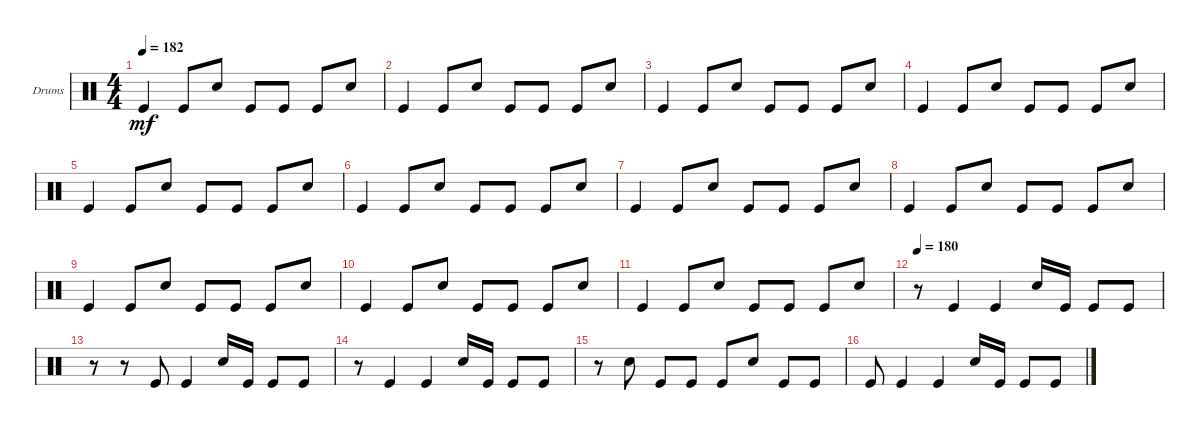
\defaultSystemsLayout 4
\bracketExtendMode groupsimilarinstruments
\firstSystemTrackNameOrientation horizontal
\otherSystemsTrackNameOrientation horizontal
\track ("Drumkit" "Drums") {instrument percussion}
\staff {score}
\articulation defaults
\ts (4 4)
\tempo 182
\clef neutral
\ks c "Kick (hit)".4{dy mf} "Kick (hit)".8 "Snare (hit) 2".8 "Kick (hit)".8 "Kick (hit)".8 "Kick (hit)".8 "Snare (hit) 2".8
|
"Kick (hit)".4 "Kick (hit)".8 "Snare (hit) 2".8 "Kick (hit)".8 "Kick (hit)".8 "Kick (hit)".8 "Snare (hit) 2".8 |
"Kick (hit)".4 "Kick (hit)".8 "Snare (hit) 2".8 "Kick (hit)".8 "Kick (hit)".8 "Kick (hit)".8 "Snare (hit) 2".8 |
"Kick (hit)".4 "Kick (hit)".8 "Snare (hit) 2".8 "Kick (hit)".8 "Kick (hit)".8 "Kick (hit)".8 "Snare (hit) 2".8 |
"Kick (hit)".4 "Kick (hit)".8 "Snare (hit) 2".8 "Kick (hit)".8 "Kick (hit)".8 "Kick (hit)".8 "Snare (hit) 2".8 |
"Kick (hit)".4 "Kick (hit)".8 "Snare (hit) 2".8 "Kick (hit)".8 "Kick (hit)".8 "Kick (hit)".8 "Snare (hit) 2".8 |
"Kick (hit)".4 "Kick (hit)".8 "Snare (hit) 2".8 "Kick (hit)".8 "Kick (hit)".8 "Kick (hit)".8 "Snare (hit) 2".8 |
"Kick (hit)".4 "Kick (hit)".8 "Snare (hit) 2".8 "Kick (hit)".8 "Kick (hit)".8 "Kick (hit)".8 "Snare (hit) 2".8 |
"Kick (hit)".4 "Kick (hit)".8 "Snare (hit) 2".8 "Kick (hit)".8 "Kick (hit)".8 "Kick (hit)".8 "Snare (hit) 2".8 |
"Kick (hit)".4 "Kick (hit)".8 "Snare (hit) 2".8 "Kick (hit)".8 "Kick (hit)".8 "Kick (hit)".8 "Snare (hit) 2".8 |
"Kick (hit)".4 "Kick (hit)".8 "Snare (hit) 2".8 "Kick (hit)".8 "Kick (hit)".8 "Kick (hit)".8 "Snare (hit) 2".8 |
\tempo 180
r.8 "Kick (hit)".4 "Kick (hit)".4 "Snare (hit) 2".16 "Kick (hit)".16 "Kick (hit)".8 "Kick (hit)".8 |
r.8 r.8 "Kick (hit)".8 "Kick (hit)".4 "Snare (hit) 2".16 "Kick (hit)".16 "Kick (hit)".8 "Kick (hit)".8 |
r.8 "Kick (hit)".4 "Kick (hit)".4 "Snare (hit) 2".16 "Kick (hit)".16 "Kick (hit)".8 "Kick (hit)".8 |
r.8 "Snare (hit) 2".8 "Kick (hit)".8 "Kick (hit)".8 "Kick (hit)".8 "Snare (hit) 2".8 "Kick (hit)".8 "Kick (hit)".8 |
"Kick (hit)".8 "Kick (hit)".4 "Kick (hit)".4 "Snare (hit) 2".16 "Kick (hit)".16 "Kick (hit)".8 "Kick (hit)".8
